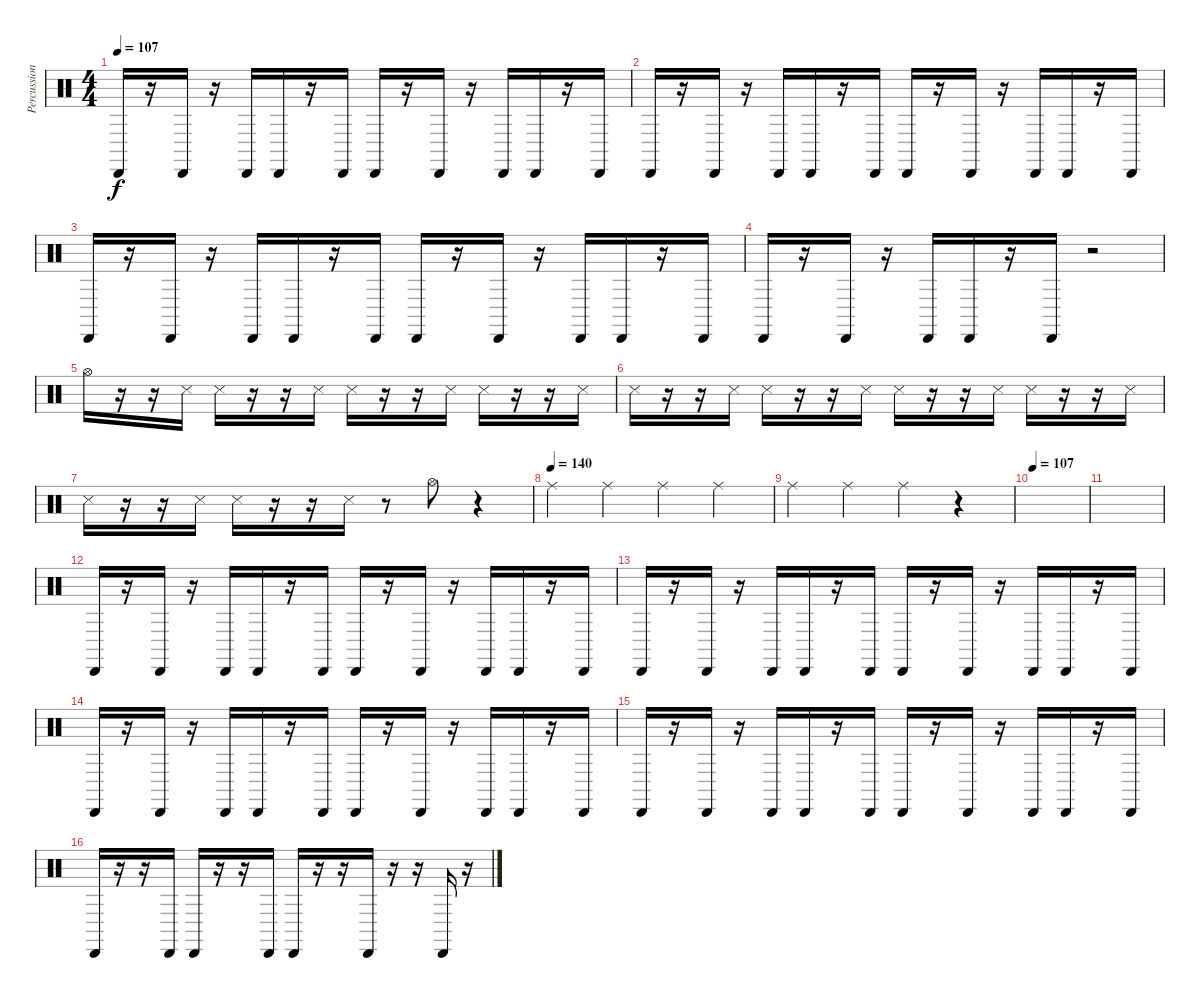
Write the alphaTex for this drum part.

\track ("Percussioni" "Percussion") {instrument percussion}
\staff {score}
\articulation defaults
\ts (4 4)
\tempo 107
\clef neutral
\ks c "Cabasa (hit)".16{dy f}
r.16 "Cabasa (hit)".16 r.16 "Cabasa (hit)".16 "Cabasa (hit)".16 r.16 "Cabasa (hit)".16 "Cabasa (hit)".16 r.16 "Cabasa (hit)".16 r.16 "Cabasa (hit)".16 "Cabasa (hit)".16 r.16 "Cabasa (hit)".16 |
"Cabasa (hit)".16 r.16 "Cabasa (hit)".16 r.16 "Cabasa (hit)".16 "Cabasa (hit)".16 r.16 "Cabasa (hit)".16 "Cabasa (hit)".16 r.16 "Cabasa (hit)".16 r.16 "Cabasa (hit)".16 "Cabasa (hit)".16 r.16 "Cabasa (hit)".16 |
"Cabasa (hit)".16 r.16 "Cabasa (hit)".16 r.16 "Cabasa (hit)".16 "Cabasa (hit)".16 r.16 "Cabasa (hit)".16 "Cabasa (hit)".16 r.16 "Cabasa (hit)".16 r.16 "Cabasa (hit)".16 "Cabasa (hit)".16 r.16 "Cabasa (hit)".16 |
"Cabasa (hit)".16 r.16 "Cabasa (hit)".16 r.16 "Cabasa (hit)".16 "Cabasa (hit)".16 r.16 "Cabasa (hit)".16 r.2 |
"Hi-Hat (open)".16 r.16 r.16 "Metronome (hit)".16 "Metronome (hit)".16 r.16 r.16 "Snare (side stick) 3".16 "Snare (side stick) 3".16 r.16 r.16 "Snare (side stick) 3".16 "Snare (side stick) 3".16 r.16 r.16 "Snare (side stick) 3".16 |
"Snare (side stick) 3".16 r.16 r.16 "Snare (side stick) 3".16 "Snare (side stick) 3".16 r.16 r.16 "Snare (side stick) 3".16 "Snare (side stick) 3".16 r.16 r.16 "Snare (side stick) 3".16 "Snare (side stick) 3".16 r.16 r.16 "Snare (side stick) 3".16 |
"Snare (side stick) 3".16 r.16 r.16 "Snare (side stick) 3".16 "Snare (side stick) 3".16 r.16 r.16 "Snare (side stick) 3".16 r.8 "Hi-Hat (open)".8 r.4 |
\tempo (140)
"Ride (middle)".4 "Ride (middle)".4 "Ride (middle)".4 "Ride (middle)".4 |
"Ride (middle)".4 "Ride (middle)".4 "Ride (middle)".4 r.4 |
\tempo 107
|
|
"Cabasa (hit)".16 r.16 "Cabasa (hit)".16 r.16 "Cabasa (hit)".16 "Cabasa (hit)".16 r.16 "Cabasa (hit)".16 "Cabasa (hit)".16 r.16 "Cabasa (hit)".16 r.16 "Cabasa (hit)".16 "Cabasa (hit)".16 r.16 "Cabasa (hit)".16 |
"Cabasa (hit)".16 r.16 "Cabasa (hit)".16 r.16 "Cabasa (hit)".16 "Cabasa (hit)".16 r.16 "Cabasa (hit)".16 "Cabasa (hit)".16 r.16 "Cabasa (hit)".16 r.16 "Cabasa (hit)".16 "Cabasa (hit)".16 r.16 "Cabasa (hit)".16 |
"Cabasa (hit)".16 r.16 "Cabasa (hit)".16 r.16 "Cabasa (hit)".16 "Cabasa (hit)".16 r.16 "Cabasa (hit)".16 "Cabasa (hit)".16 r.16 "Cabasa (hit)".16 r.16 "Cabasa (hit)".16 "Cabasa (hit)".16 r.16 "Cabasa (hit)".16 |
"Cabasa (hit)".16 r.16 "Cabasa (hit)".16 r.16 "Cabasa (hit)".16 "Cabasa (hit)".16 r.16 "Cabasa (hit)".16 "Cabasa (hit)".16 r.16 "Cabasa (hit)".16 r.16 "Cabasa (hit)".16 "Cabasa (hit)".16 r.16 "Cabasa (hit)".16 |
"Cabasa (hit)".16 r.16 r.16 "Cabasa (hit)".16 "Cabasa (hit)".16 r.16 r.16 "Cabasa (hit)".16 "Cabasa (hit)".16 r.16 r.16 "Cabasa (hit)".16 r.16 r.16 "Cabasa (hit)".16 r.16
